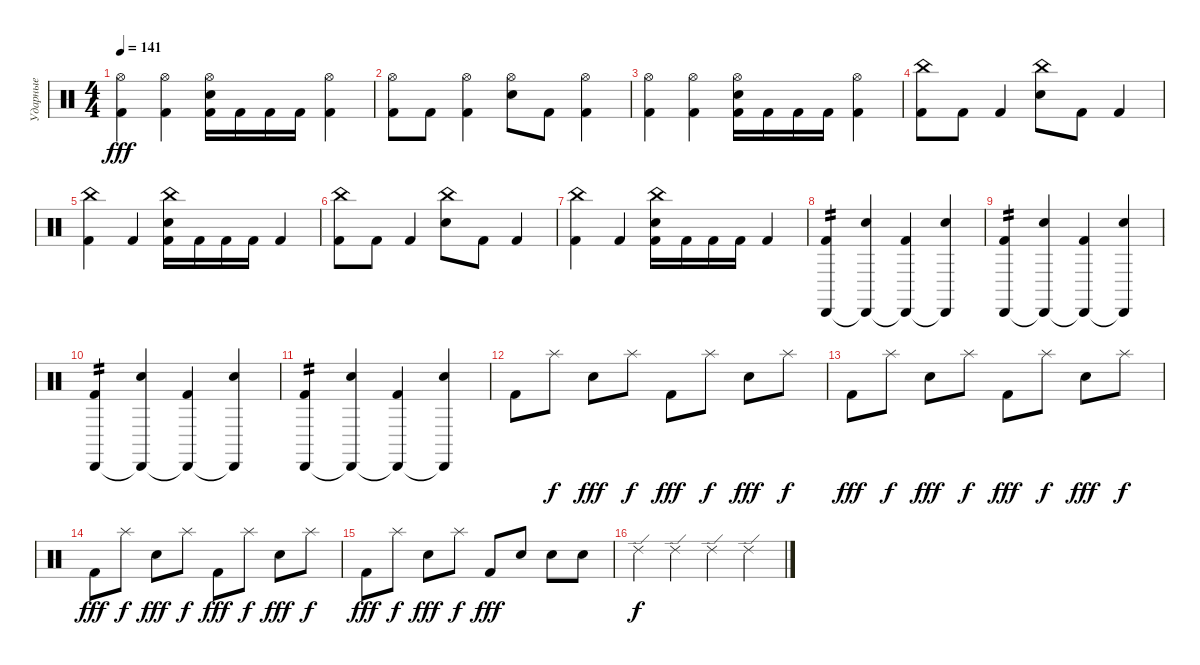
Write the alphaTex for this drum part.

\track ("Ударные" "Ударные") {instrument percussion}
\staff {score}
\articulation defaults
\ts (4 4)
\tempo 141
\clef neutral
\ks c
("Hi-Hat (open)" "Kick (hit) 2").4{dy fff} ("Hi-Hat (open)" "Kick (hit) 2").4 ("Hi-Hat (open)" "Electric Snare (hit)" "Kick (hit) 2").16 "Kick (hit) 2".16 "Kick (hit) 2".16 "Kick (hit) 2".16 ("Hi-Hat (open)" "Kick (hit) 2").4 |
("Hi-Hat (open)" "Kick (hit) 2").8 "Kick (hit) 2".8 ("Hi-Hat (open)" "Kick (hit) 2").4 ("Hi-Hat (open)" "Electric Snare (hit)").8 "Kick (hit) 2".8 ("Hi-Hat (open)" "Kick (hit) 2").4 |
("Hi-Hat (open)" "Kick (hit) 2").4 ("Hi-Hat (open)" "Kick (hit) 2").4 ("Hi-Hat (open)" "Electric Snare (hit)" "Kick (hit) 2").16 "Kick (hit) 2".16 "Kick (hit) 2".16 "Kick (hit) 2".16 ("Hi-Hat (open)" "Kick (hit) 2").4 |
("China (hit)" "Kick (hit) 2").8 "Kick (hit) 2".8 "Kick (hit) 2".4 ("China (hit)" "Electric Snare (hit)").8 "Kick (hit) 2".8 "Kick (hit) 2".4 |
("China (hit)" "Kick (hit) 2").4 "Kick (hit) 2".4 ("China (hit)" "Electric Snare (hit)" "Kick (hit) 2").16 "Kick (hit) 2".16 "Kick (hit) 2".16 "Kick (hit) 2".16 "Kick (hit) 2".4 |
("China (hit)" "Kick (hit) 2").8 "Kick (hit) 2".8 "Kick (hit) 2".4 ("China (hit)" "Electric Snare (hit)").8 "Kick (hit) 2".8 "Kick (hit) 2".4 |
("China (hit)" "Kick (hit) 2").4 "Kick (hit) 2".4 ("China (hit)" "Electric Snare (hit)" "Kick (hit) 2").16 "Kick (hit) 2".16 "Kick (hit) 2".16 "Kick (hit) 2".16 "Kick (hit) 2".4 |
("Cabasa (hit)" "Kick (hit) 2").4{tp 2} ("Cabasa (hit)"{t} "Electric Snare (hit)").4 ("Cabasa (hit)"{t} "Kick (hit) 2").4 ("Cabasa (hit)"{t} "Electric Snare (hit)").4 |
("Cabasa (hit)" "Kick (hit) 2").4{tp 2} ("Cabasa (hit)"{t} "Electric Snare (hit)").4 ("Cabasa (hit)"{t} "Kick (hit) 2").4 ("Cabasa (hit)"{t} "Electric Snare (hit)").4 |
("Cabasa (hit)" "Kick (hit) 2").4{tp 2} ("Cabasa (hit)"{t} "Electric Snare (hit)").4 ("Cabasa (hit)"{t} "Kick (hit) 2").4 ("Cabasa (hit)"{t} "Electric Snare (hit)").4 |
("Cabasa (hit)" "Kick (hit) 2").4{tp 2} ("Cabasa (hit)"{t} "Electric Snare (hit)").4 ("Cabasa (hit)"{t} "Kick (hit) 2").4 ("Cabasa (hit)"{t} "Electric Snare (hit)").4 |
"Kick (hit) 2".8 "Splash (hit)".8{dy f} "Electric Snare (hit)".8{dy fff} "Splash (hit)".8{dy f} "Kick (hit) 2".8{dy fff} "Splash (hit)".8{dy f} "Electric Snare (hit)".8{dy fff} "Splash (hit)".8{dy f} |
"Kick (hit) 2".8{dy fff} "Splash (hit)".8{dy f} "Electric Snare (hit)".8{dy fff} "Splash (hit)".8{dy f} "Kick (hit) 2".8{dy fff} "Splash (hit)".8{dy f} "Electric Snare (hit)".8{dy fff} "Splash (hit)".8{dy f} |
"Kick (hit) 2".8{dy fff} "Splash (hit)".8{dy f} "Electric Snare (hit)".8{dy fff} "Splash (hit)".8{dy f} "Kick (hit) 2".8{dy fff} "Splash (hit)".8{dy f} "Electric Snare (hit)".8{dy fff} "Splash (hit)".8{dy f} |
"Kick (hit) 2".8{dy fff} "Splash (hit)".8{dy f} "Electric Snare (hit)".8{dy fff} "Splash (hit)".8{dy f} "Kick (hit) 2".8{dy fff} "Electric Snare (hit)".8 "Electric Snare (hit)".8 "Electric Snare (hit)".8 |
"Ride (edge) 2".4{dy f} "Ride (edge) 2".4 "Ride (edge) 2".4 "Ride (edge) 2".4
